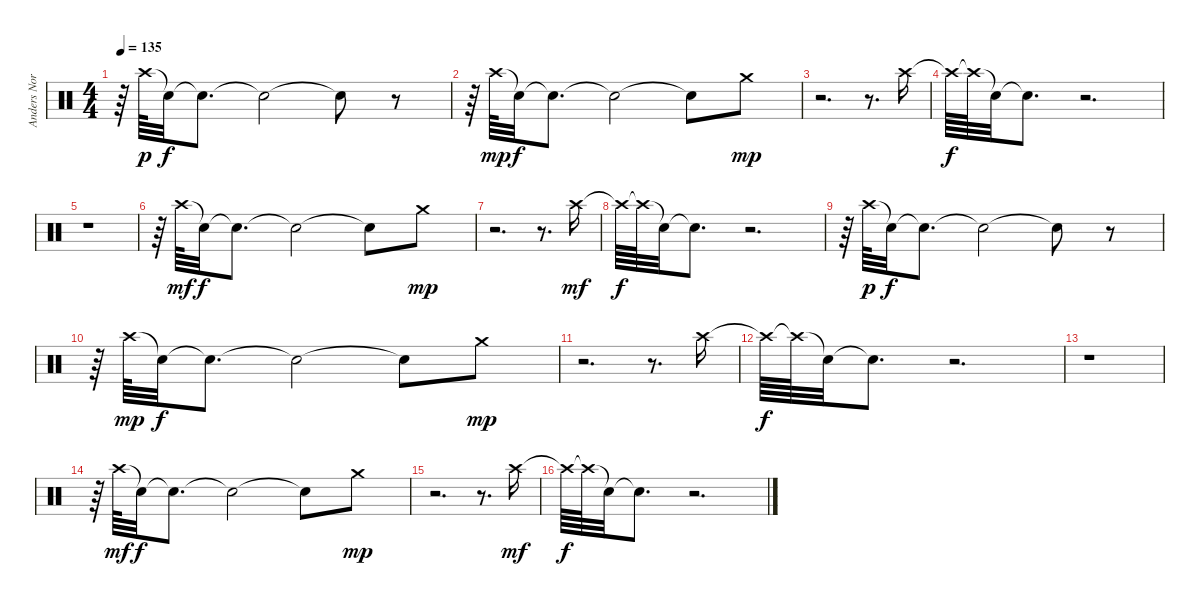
\track ("Anders Nordin" "Anders Nor") {instrument percussion}
\staff {score}
\articulation defaults
\ts (4 4)
\tempo 135
\clef neutral
\ks c
r.64{dy f volume 0} "Crash high (hit)".64{dy p volume 16} "Snare (hit)"{t}.32{dy f} "Snare (hit)"{t}.8{d} "Snare (hit)"{t}.2 "Snare (hit)"{t}.8{volume 0} r.8 |
r.64{volume 0} "Crash high (hit)".64{dy mp volume 16} "Snare (hit)"{t}.32{dy f} "Snare (hit)"{t}.8{d} "Snare (hit)"{t}.2 "Snare (hit)"{t}.8{volume 0} "Crash medium (hit)".8{dy mp volume 16} |
r.2{d} r.8{d volume 0} "Crash high (hit)".16{volume 16} |
"Crash high (hit)"{t}.64{dy f} "Crash high (hit)"{t}.64 "Snare (hit)"{t}.32 "Snare (hit)"{t}.8{d} r.2{d} |
r.1 |
r.64{volume 0} "Crash high (hit)".64{dy mf volume 16} "Snare (hit)"{t}.32{dy f} "Snare (hit)"{t}.8{d} "Snare (hit)"{t}.2 "Snare (hit)"{t}.8{volume 0} "Crash medium (hit)".8{dy mp volume 16} |
r.2{d} r.8{d volume 0} "Crash high (hit)".16{dy mf volume 16} |
"Crash high (hit)"{t}.64{dy f} "Crash high (hit)"{t}.64 "Snare (hit)"{t}.32 "Snare (hit)"{t}.8{d} r.2{d} |
r.64{volume 0} "Crash high (hit)".64{dy p volume 16} "Snare (hit)"{t}.32{dy f} "Snare (hit)"{t}.8{d} "Snare (hit)"{t}.2 "Snare (hit)"{t}.8{volume 0} r.8 |
r.64{volume 0} "Crash high (hit)".64{dy mp volume 16} "Snare (hit)"{t}.32{dy f} "Snare (hit)"{t}.8{d} "Snare (hit)"{t}.2 "Snare (hit)"{t}.8{volume 0} "Crash medium (hit)".8{dy mp volume 16} |
r.2{d} r.8{d volume 0} "Crash high (hit)".16{volume 16} |
"Crash high (hit)"{t}.64{dy f} "Crash high (hit)"{t}.64 "Snare (hit)"{t}.32 "Snare (hit)"{t}.8{d} r.2{d} |
r.1 |
r.64{volume 0} "Crash high (hit)".64{dy mf volume 16} "Snare (hit)"{t}.32{dy f} "Snare (hit)"{t}.8{d} "Snare (hit)"{t}.2 "Snare (hit)"{t}.8{volume 0} "Crash medium (hit)".8{dy mp volume 16} |
r.2{d} r.8{d volume 0} "Crash high (hit)".16{dy mf volume 16} |
"Crash high (hit)"{t}.64{dy f} "Crash high (hit)"{t}.64 "Snare (hit)"{t}.32 "Snare (hit)"{t}.8{d} r.2{d}
